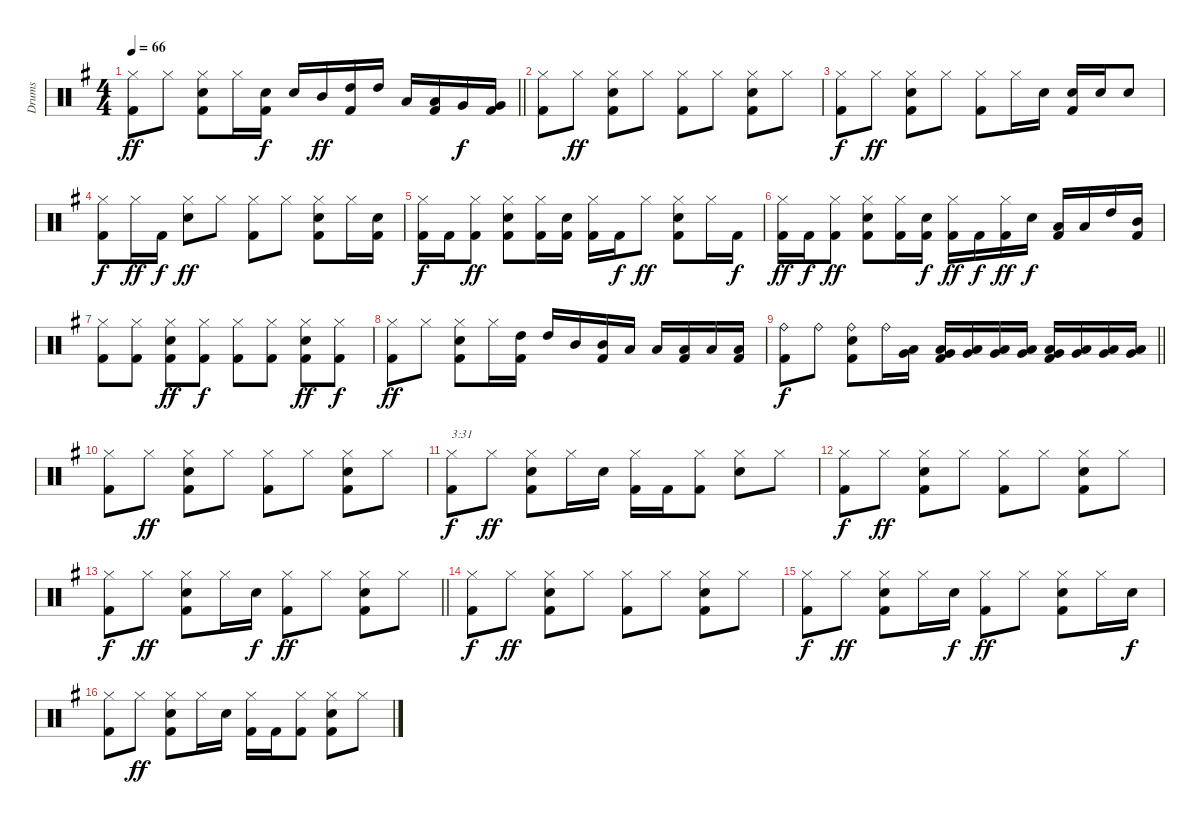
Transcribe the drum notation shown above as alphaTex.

\track ("Drums" "Drums") {instrument percussion}
\staff {score}
\articulation defaults
\ts (4 4)
\tempo 66
\clef neutral
\barLineRight lightlight
\ks g
("Hi-Hat (closed)" "Kick (hit) 2").8{dy ff} "Hi-Hat (closed)".8 ("Hi-Hat (closed)" "Snare (hit) 2" "Kick (hit) 2").8 "Hi-Hat (closed)".16 ("Snare (hit) 2" "Kick (hit) 2").16{dy f} "Snare (hit) 2".16 "Mid Tom (hit)".16{dy ff} ("High Tom (hit)" "Kick (hit) 2").16 "High Tom (hit)".16 "Low Tom (hit)".16 ("Low Tom (hit)" "Kick (hit) 2").16 "Very Low Tom (hit)".16{dy f} ("Very Low Tom (hit)" "Kick (hit) 2").16 |
("Hi-Hat (closed)" "Kick (hit) 2").8 "Hi-Hat (closed)".8{dy ff} ("Hi-Hat (closed)" "Snare (hit) 2" "Kick (hit) 2").8 "Hi-Hat (closed)".8 ("Hi-Hat (closed)" "Kick (hit) 2").8 "Hi-Hat (closed)".8 ("Hi-Hat (closed)" "Snare (hit) 2" "Kick (hit) 2").8 "Hi-Hat (closed)".8 |
("Hi-Hat (closed)" "Kick (hit) 2").8{dy f} "Hi-Hat (closed)".8{dy ff} ("Hi-Hat (closed)" "Snare (hit) 2" "Kick (hit) 2").8 "Hi-Hat (closed)".8 ("Hi-Hat (closed)" "Kick (hit) 2").8 "Hi-Hat (closed)".16 "Snare (hit) 2".16 ("Snare (hit) 2" "Kick (hit) 2").16 "Snare (hit) 2".16 "Snare (hit) 2".8 |
("Hi-Hat (closed)" "Kick (hit) 2").8{dy f} "Hi-Hat (closed)".16{dy ff} "Kick (hit) 2".16{dy f} ("Hi-Hat (closed)" "Snare (hit) 2").8{dy ff} "Hi-Hat (closed)".8 ("Hi-Hat (closed)" "Kick (hit) 2").8 "Hi-Hat (closed)".8 ("Hi-Hat (closed)" "Snare (hit) 2" "Kick (hit) 2").8 "Hi-Hat (closed)".16 ("Snare (hit) 2" "Kick (hit) 2").16 |
("Hi-Hat (closed)" "Kick (hit) 2").16{dy f} "Kick (hit) 2".16 ("Hi-Hat (closed)" "Kick (hit) 2").8{dy ff} ("Hi-Hat (closed)" "Snare (hit) 2" "Kick (hit) 2").8 ("Hi-Hat (closed)" "Kick (hit) 2").16 ("Snare (hit) 2" "Kick (hit) 2").16 ("Hi-Hat (closed)" "Kick (hit) 2").16 "Kick (hit) 2".16{dy f} "Hi-Hat (closed)".8{dy ff} ("Hi-Hat (closed)" "Snare (hit) 2" "Kick (hit) 2").8 "Hi-Hat (closed)".16 "Kick (hit) 2".16{dy f} |
("Hi-Hat (closed)" "Kick (hit) 2").16{dy ff} "Kick (hit) 2".16{dy f} ("Hi-Hat (closed)" "Kick (hit) 2").8{dy ff} ("Hi-Hat (closed)" "Snare (hit) 2" "Kick (hit) 2").8 ("Hi-Hat (closed)" "Kick (hit) 2").16 ("Snare (hit) 2" "Kick (hit) 2").16{dy f} ("Hi-Hat (closed)" "Kick (hit) 2").16{dy ff} "Kick (hit) 2".16{dy f} ("Hi-Hat (closed)" "Kick (hit) 2").16{dy ff} "Snare (hit) 2".16{dy f} ("Low Tom (hit)" "Kick (hit) 2").16 "Low Tom (hit)".16 "High Tom (hit)".16 ("Mid Tom (hit)" "Kick (hit) 2").16 |
("Hi-Hat (closed)" "Kick (hit) 2").8 ("Hi-Hat (closed)" "Kick (hit) 2").8 ("Hi-Hat (closed)" "Snare (hit) 2" "Kick (hit) 2").8{dy ff} ("Hi-Hat (closed)" "Kick (hit) 2").8{dy f} ("Hi-Hat (closed)" "Kick (hit) 2").8 ("Hi-Hat (closed)" "Kick (hit) 2").8 ("Hi-Hat (closed)" "Snare (hit) 2" "Kick (hit) 2").8{dy ff} ("Hi-Hat (closed)" "Kick (hit) 2").8{dy f} |
("Hi-Hat (closed)" "Kick (hit) 2").8{dy ff} "Hi-Hat (closed)".8 ("Hi-Hat (closed)" "Snare (hit) 2" "Kick (hit) 2").8 "Hi-Hat (closed)".16 ("High Tom (hit)" "Kick (hit) 2").16 "High Tom (hit)".16 "Mid Tom (hit)".16 ("Mid Tom (hit)" "Kick (hit) 2").16 "Low Tom (hit)".16 "Low Tom (hit)".16 ("Low Tom (hit)" "Kick (hit) 2").16 "Low Floor Tom (hit)".16 ("Low Floor Tom (hit)" "Kick (hit) 2").16 |
\barLineRight lightlight
("Ride (bell)" "Kick (hit) 2").8{dy f} "Ride (bell)".8 ("Ride (bell)" "Snare (hit) 2" "Kick (hit) 2").8 "Ride (bell)".16 ("Low Tom (hit)" "Very Low Tom (hit)").16 ("Low Tom (hit)" "Very Low Tom (hit)" "Kick (hit) 2").16 ("Low Tom (hit)" "Very Low Tom (hit)").16 ("Low Tom (hit)" "Very Low Tom (hit)").16 ("Very Low Tom (hit)" "Low Floor Tom (hit)").16 ("Very Low Tom (hit)" "Low Floor Tom (hit)" "Kick (hit) 2").16 ("Very Low Tom (hit)" "Low Floor Tom (hit)").16 ("Very Low Tom (hit)" "Low Floor Tom (hit)").16 ("Very Low Tom (hit)" "Low Floor Tom (hit)").16 |
("Hi-Hat (closed)" "Kick (hit) 2").8 "Hi-Hat (closed)".8{dy ff} ("Hi-Hat (closed)" "Snare (hit) 2" "Kick (hit) 2").8 "Hi-Hat (closed)".8 ("Hi-Hat (closed)" "Kick (hit) 2").8 "Hi-Hat (closed)".8 ("Hi-Hat (closed)" "Snare (hit) 2" "Kick (hit) 2").8 "Hi-Hat (closed)".8 |
("Hi-Hat (closed)" "Kick (hit) 2").8{txt "3:31" dy f} "Hi-Hat (closed)".8{dy ff} ("Hi-Hat (closed)" "Snare (hit) 2" "Kick (hit) 2").8 "Hi-Hat (closed)".16 "Snare (hit) 2".16 ("Hi-Hat (closed)" "Kick (hit) 2").16 "Kick (hit) 2".16 ("Hi-Hat (closed)" "Kick (hit) 2").8 ("Hi-Hat (closed)" "Snare (hit) 2").8 "Hi-Hat (closed)".8 |
("Hi-Hat (closed)" "Kick (hit) 2").8{dy f} "Hi-Hat (closed)".8{dy ff} ("Hi-Hat (closed)" "Snare (hit) 2" "Kick (hit) 2").8 "Hi-Hat (closed)".8 ("Hi-Hat (closed)" "Kick (hit) 2").8 "Hi-Hat (closed)".8 ("Hi-Hat (closed)" "Snare (hit) 2" "Kick (hit) 2").8 "Hi-Hat (closed)".8 |
\barLineRight lightlight
("Hi-Hat (closed)" "Kick (hit) 2").8{dy f} "Hi-Hat (closed)".8{dy ff} ("Hi-Hat (closed)" "Snare (hit) 2" "Kick (hit) 2").8 "Hi-Hat (closed)".16 "Snare (hit) 2".16{dy f} ("Hi-Hat (closed)" "Kick (hit) 2").8{dy ff} "Hi-Hat (closed)".8 ("Hi-Hat (closed)" "Snare (hit) 2" "Kick (hit) 2").8 "Hi-Hat (closed)".8 |
("Hi-Hat (closed)" "Kick (hit) 2").8{dy f} "Hi-Hat (closed)".8{dy ff} ("Hi-Hat (closed)" "Snare (hit) 2" "Kick (hit) 2").8 "Hi-Hat (closed)".8 ("Hi-Hat (closed)" "Kick (hit) 2").8 "Hi-Hat (closed)".8 ("Hi-Hat (closed)" "Snare (hit) 2" "Kick (hit) 2").8 "Hi-Hat (closed)".8 |
("Hi-Hat (closed)" "Kick (hit) 2").8{dy f} "Hi-Hat (closed)".8{dy ff} ("Hi-Hat (closed)" "Snare (hit) 2" "Kick (hit) 2").8 "Hi-Hat (closed)".16 "Snare (hit) 2".16{dy f} ("Hi-Hat (closed)" "Kick (hit) 2").8{dy ff} "Hi-Hat (closed)".8 ("Hi-Hat (closed)" "Snare (hit) 2" "Kick (hit) 2").8 "Hi-Hat (closed)".16 "Snare (hit) 2".16{dy f} |
("Hi-Hat (closed)" "Kick (hit) 2").8 "Hi-Hat (closed)".8{dy ff} ("Hi-Hat (closed)" "Snare (hit) 2" "Kick (hit) 2").8 "Hi-Hat (closed)".16 "Snare (hit) 2".16 ("Hi-Hat (closed)" "Kick (hit) 2").16 "Kick (hit) 2".16 ("Hi-Hat (closed)" "Kick (hit) 2").8 ("Hi-Hat (closed)" "Snare (hit) 2" "Kick (hit) 2").8 "Hi-Hat (closed)".8
